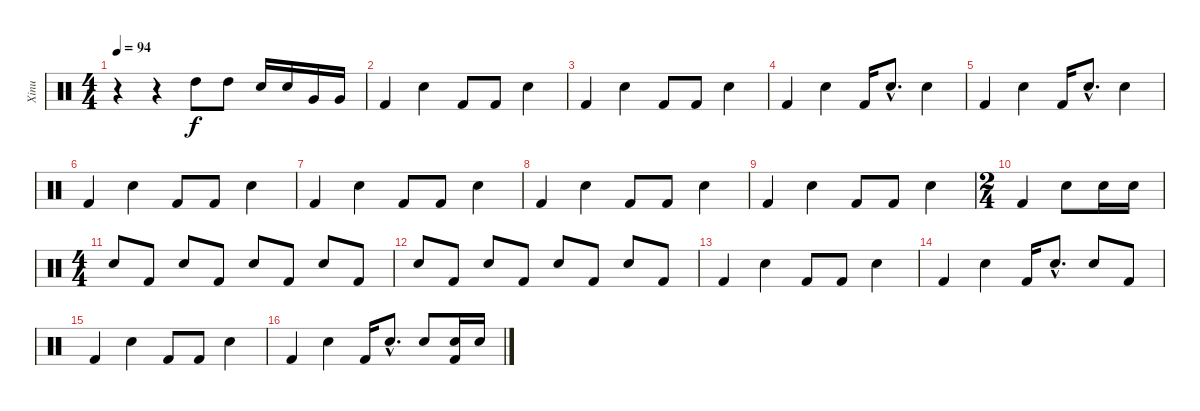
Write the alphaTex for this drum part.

\track ("Xinu" "Xinu") {instrument percussion}
\staff {score}
\articulation defaults
\ts (4 4)
\tempo 94
\clef neutral
\ks c
r.4{dy f} r.4 "High Tom (hit)".8 "High Tom (hit)".8 "Electric Snare (hit)".16 "Electric Snare (hit)".16 "Very Low Tom (hit)".16 "Very Low Tom (hit)".16 |
"Kick (hit) 2".4 "Snare (hit) 2".4 "Kick (hit) 2".8 "Kick (hit) 2".8 "Snare (hit) 2".4 |
"Kick (hit) 2".4 "Snare (hit) 2".4 "Kick (hit) 2".8 "Kick (hit) 2".8 "Snare (hit) 2".4 |
"Kick (hit) 2".4 "Snare (hit) 2".4 "Kick (hit) 2".16 "Snare (hit) 2"{hac}.8{d} "Snare (hit) 2".4 |
"Kick (hit) 2".4 "Snare (hit) 2".4 "Kick (hit) 2".16 "Snare (hit) 2"{hac}.8{d} "Snare (hit) 2".4 |
"Kick (hit) 2".4 "Snare (hit) 2".4 "Kick (hit) 2".8 "Kick (hit) 2".8 "Snare (hit) 2".4 |
"Kick (hit) 2".4 "Snare (hit) 2".4 "Kick (hit) 2".8 "Kick (hit) 2".8 "Snare (hit) 2".4 |
"Kick (hit) 2".4 "Snare (hit) 2".4 "Kick (hit) 2".8 "Kick (hit) 2".8 "Snare (hit) 2".4 |
"Kick (hit) 2".4 "Snare (hit) 2".4 "Kick (hit) 2".8 "Kick (hit) 2".8 "Snare (hit) 2".4 |
\ts (2 4)
"Kick (hit) 2".4 "Snare (hit) 2".8 "Snare (hit) 2".16 "Snare (hit) 2".16 |
\ts (4 4)
"Snare (hit) 2".8 "Kick (hit) 2".8 "Snare (hit) 2".8 "Kick (hit) 2".8 "Snare (hit) 2".8 "Kick (hit) 2".8 "Snare (hit) 2".8 "Kick (hit) 2".8 |
"Snare (hit) 2".8 "Kick (hit) 2".8 "Snare (hit) 2".8 "Kick (hit) 2".8 "Snare (hit) 2".8 "Kick (hit) 2".8 "Snare (hit) 2".8 "Kick (hit) 2".8 |
"Kick (hit) 2".4 "Snare (hit) 2".4 "Kick (hit) 2".8 "Kick (hit) 2".8 "Snare (hit) 2".4 |
"Kick (hit) 2".4 "Snare (hit) 2".4 "Kick (hit) 2".16 "Snare (hit) 2"{hac}.8{d} "Snare (hit) 2".8 "Kick (hit) 2".8 |
"Kick (hit) 2".4 "Snare (hit) 2".4 "Kick (hit) 2".8 "Kick (hit) 2".8 "Snare (hit) 2".4 |
"Kick (hit) 2".4 "Snare (hit) 2".4 "Kick (hit) 2".16 "Snare (hit) 2"{hac}.8{d} "Snare (hit) 2".8 ("Snare (hit) 2" "Kick (hit) 2").16 "Snare (hit) 2".16
